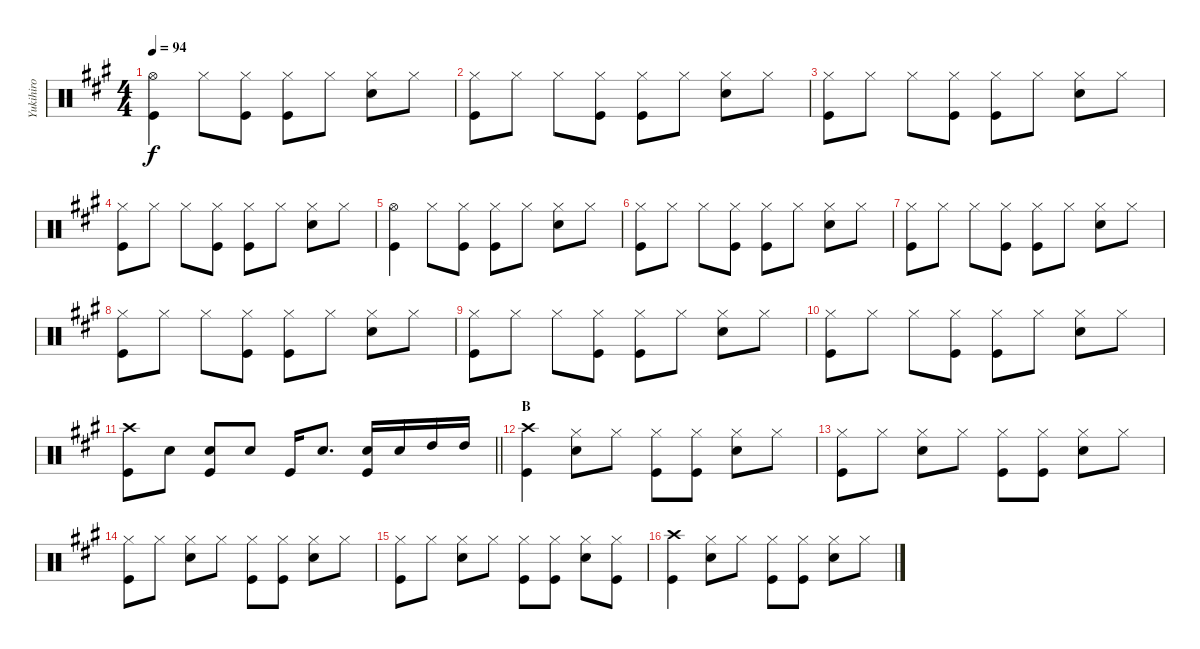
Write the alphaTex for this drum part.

\track ("Yukihiro" "Yukihiro") {instrument percussion}
\staff {score}
\articulation defaults
\ts (4 4)
\tempo 94
\clef neutral
\ks a
("Kick (hit)" "Hi-Hat (open)").4{dy f} "Hi-Hat (closed)".8 ("Hi-Hat (closed)" "Kick (hit)").8 ("Hi-Hat (closed)" "Kick (hit)").8 "Hi-Hat (closed)".8 ("Hi-Hat (closed)" "Snare (hit) 2").8 "Hi-Hat (closed)".8 |
("Hi-Hat (closed)" "Kick (hit)").8 "Hi-Hat (closed)".8 "Hi-Hat (closed)".8 ("Hi-Hat (closed)" "Kick (hit)").8 ("Hi-Hat (closed)" "Kick (hit)").8 "Hi-Hat (closed)".8 ("Hi-Hat (closed)" "Snare (hit) 2").8 "Hi-Hat (closed)".8 |
("Hi-Hat (closed)" "Kick (hit)").8 "Hi-Hat (closed)".8 "Hi-Hat (closed)".8 ("Hi-Hat (closed)" "Kick (hit)").8 ("Hi-Hat (closed)" "Kick (hit)").8 "Hi-Hat (closed)".8 ("Hi-Hat (closed)" "Snare (hit) 2").8 "Hi-Hat (closed)".8 |
("Hi-Hat (closed)" "Kick (hit)").8 "Hi-Hat (closed)".8 "Hi-Hat (closed)".8 ("Hi-Hat (closed)" "Kick (hit)").8 ("Hi-Hat (closed)" "Kick (hit)").8 "Hi-Hat (closed)".8 ("Hi-Hat (closed)" "Snare (hit) 2").8 "Hi-Hat (closed)".8 |
("Kick (hit)" "Hi-Hat (open)").4 "Hi-Hat (closed)".8 ("Hi-Hat (closed)" "Kick (hit)").8 ("Hi-Hat (closed)" "Kick (hit)").8 "Hi-Hat (closed)".8 ("Hi-Hat (closed)" "Snare (hit) 2").8 "Hi-Hat (closed)".8 |
("Kick (hit)" "Hi-Hat (closed)").8 "Hi-Hat (closed)".8 "Hi-Hat (closed)".8 ("Hi-Hat (closed)" "Kick (hit)").8 ("Kick (hit)" "Hi-Hat (closed)").8 "Hi-Hat (closed)".8 ("Snare (hit) 2" "Hi-Hat (closed)").8 "Hi-Hat (closed)".8 |
("Kick (hit)" "Hi-Hat (closed)").8 "Hi-Hat (closed)".8 "Hi-Hat (closed)".8 ("Hi-Hat (closed)" "Kick (hit)").8 ("Kick (hit)" "Hi-Hat (closed)").8 "Hi-Hat (closed)".8 ("Snare (hit) 2" "Hi-Hat (closed)").8 "Hi-Hat (closed)".8 |
("Kick (hit)" "Hi-Hat (closed)").8 "Hi-Hat (closed)".8 "Hi-Hat (closed)".8 ("Hi-Hat (closed)" "Kick (hit)").8 ("Kick (hit)" "Hi-Hat (closed)").8 "Hi-Hat (closed)".8 ("Snare (hit) 2" "Hi-Hat (closed)").8 "Hi-Hat (closed)".8 |
("Kick (hit)" "Hi-Hat (closed)").8 "Hi-Hat (closed)".8 "Hi-Hat (closed)".8 ("Hi-Hat (closed)" "Kick (hit)").8 ("Kick (hit)" "Hi-Hat (closed)").8 "Hi-Hat (closed)".8 ("Snare (hit) 2" "Hi-Hat (closed)").8 "Hi-Hat (closed)".8 |
("Kick (hit)" "Hi-Hat (closed)").8 "Hi-Hat (closed)".8 "Hi-Hat (closed)".8 ("Hi-Hat (closed)" "Kick (hit)").8 ("Kick (hit)" "Hi-Hat (closed)").8 "Hi-Hat (closed)".8 ("Snare (hit) 2" "Hi-Hat (closed)").8 "Hi-Hat (closed)".8 |
\barLineRight lightlight
("Crash high (hit)" "Kick (hit)").8 "Snare (hit) 2".8 ("Snare (hit) 2" "Kick (hit)").8 "Snare (hit) 2".8 "Kick (hit)".16 "Snare (hit) 2".8{d} ("Kick (hit)" "Snare (hit) 2").16 "Snare (hit) 2".16 "High Tom (hit)".16 "High Tom (hit)".16 |
\section ("" "B")
("Crash high (hit)" "Kick (hit)").4 ("Snare (hit) 2" "Hi-Hat (closed)").8 "Hi-Hat (closed)".8 ("Hi-Hat (closed)" "Kick (hit)").8 ("Hi-Hat (closed)" "Kick (hit)").8 ("Hi-Hat (closed)" "Snare (hit) 2").8 "Hi-Hat (closed)".8 |
("Hi-Hat (closed)" "Kick (hit)").8 "Hi-Hat (closed)".8 ("Hi-Hat (closed)" "Snare (hit) 2").8 "Hi-Hat (closed)".8 ("Hi-Hat (closed)" "Kick (hit)").8 ("Hi-Hat (closed)" "Kick (hit)").8 ("Hi-Hat (closed)" "Snare (hit) 2").8 "Hi-Hat (closed)".8 |
("Hi-Hat (closed)" "Kick (hit)").8 "Hi-Hat (closed)".8 ("Hi-Hat (closed)" "Snare (hit) 2").8 "Hi-Hat (closed)".8 ("Hi-Hat (closed)" "Kick (hit)").8 ("Hi-Hat (closed)" "Kick (hit)").8 ("Hi-Hat (closed)" "Snare (hit) 2").8 "Hi-Hat (closed)".8 |
("Hi-Hat (closed)" "Kick (hit)").8 "Hi-Hat (closed)".8 ("Hi-Hat (closed)" "Snare (hit) 2").8 "Hi-Hat (closed)".8 ("Hi-Hat (closed)" "Kick (hit)").8 ("Hi-Hat (closed)" "Kick (hit)").8 ("Hi-Hat (closed)" "Snare (hit) 2").8 ("Hi-Hat (closed)" "Kick (hit)").8 |
("Crash high (hit)" "Kick (hit)").4 ("Snare (hit) 2" "Hi-Hat (closed)").8 "Hi-Hat (closed)".8 ("Hi-Hat (closed)" "Kick (hit)").8 ("Hi-Hat (closed)" "Kick (hit)").8 ("Hi-Hat (closed)" "Snare (hit) 2").8 "Hi-Hat (closed)".8
